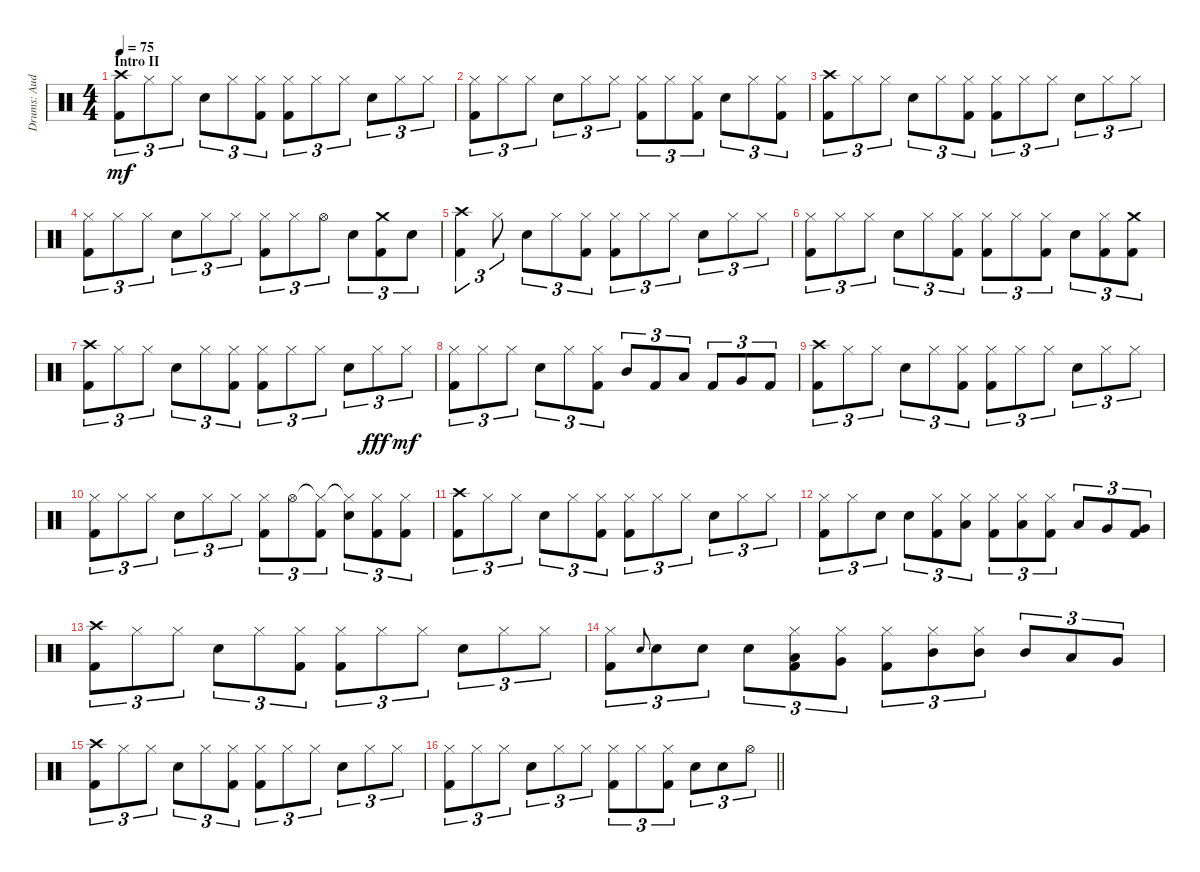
\track ("Drums: Audie" "Drums: Aud") {instrument percussion}
\staff {score}
\articulation defaults
\ts (4 4)
\section ("" "Intro II")
\tempo 75
\clef neutral
\ks c
("Crash high (hit)" "Kick (hit) 2").8{tu (3 2) dy mf} "Hi-Hat (closed)".8{tu (3 2)} "Hi-Hat (closed)".8{tu (3 2)} "Electric Snare (hit)".8{tu (3 2)} "Hi-Hat (closed)".8{tu (3 2)} ("Hi-Hat (closed)" "Kick (hit) 2").8{tu (3 2)} ("Hi-Hat (closed)" "Kick (hit) 2").8{tu (3 2)} "Hi-Hat (closed)".8{tu (3 2)} "Hi-Hat (closed)".8{tu (3 2)} "Electric Snare (hit)".8{tu (3 2)} "Hi-Hat (closed)".8{tu (3 2)} "Hi-Hat (closed)".8{tu (3 2)} |
("Hi-Hat (closed)" "Kick (hit) 2").8{tu (3 2)} "Hi-Hat (closed)".8{tu (3 2)} "Hi-Hat (closed)".8{tu (3 2)} "Electric Snare (hit)".8{tu (3 2)} "Hi-Hat (closed)".8{tu (3 2)} "Hi-Hat (closed)".8{tu (3 2)} ("Hi-Hat (closed)" "Kick (hit) 2").8{tu (3 2)} "Hi-Hat (closed)".8{tu (3 2)} ("Hi-Hat (closed)" "Kick (hit) 2").8{tu (3 2)} "Electric Snare (hit)".8{tu (3 2)} "Hi-Hat (closed)".8{tu (3 2)} ("Hi-Hat (closed)" "Kick (hit) 2").8{tu (3 2)} |
("Crash high (hit)" "Kick (hit) 2").8{tu (3 2)} "Hi-Hat (closed)".8{tu (3 2)} "Hi-Hat (closed)".8{tu (3 2)} "Electric Snare (hit)".8{tu (3 2)} "Hi-Hat (closed)".8{tu (3 2)} ("Hi-Hat (closed)" "Kick (hit) 2").8{tu (3 2)} ("Hi-Hat (closed)" "Kick (hit) 2").8{tu (3 2)} "Hi-Hat (closed)".8{tu (3 2)} "Hi-Hat (closed)".8{tu (3 2)} "Electric Snare (hit)".8{tu (3 2)} "Hi-Hat (closed)".8{tu (3 2)} "Hi-Hat (closed)".8{tu (3 2)} |
("Hi-Hat (closed)" "Kick (hit) 2").8{tu (3 2)} "Hi-Hat (closed)".8{tu (3 2)} "Hi-Hat (closed)".8{tu (3 2)} "Electric Snare (hit)".8{tu (3 2)} "Hi-Hat (closed)".8{tu (3 2)} "Hi-Hat (closed)".8{tu (3 2)} ("Hi-Hat (closed)" "Kick (hit) 2").8{tu (3 2)} "Hi-Hat (closed)".8{tu (3 2)} "Hi-Hat (open)".8{tu (3 2)} "Electric Snare (hit)".8{tu (3 2)} ("Crash medium (hit)" "Kick (hit) 2").8{tu (3 2)} "Electric Snare (hit)".8{tu (3 2)} |
("Crash high (hit)" "Kick (hit) 2").4{tu (3 2)} "Hi-Hat (closed)".8{tu (3 2)} "Electric Snare (hit)".8{tu (3 2)} "Hi-Hat (closed)".8{tu (3 2)} ("Hi-Hat (closed)" "Kick (hit) 2").8{tu (3 2)} ("Hi-Hat (closed)" "Kick (hit) 2").8{tu (3 2)} "Hi-Hat (closed)".8{tu (3 2)} "Hi-Hat (closed)".8{tu (3 2)} "Electric Snare (hit)".8{tu (3 2)} "Hi-Hat (closed)".8{tu (3 2)} "Hi-Hat (closed)".8{tu (3 2)} |
("Hi-Hat (closed)" "Kick (hit) 2").8{tu (3 2)} "Hi-Hat (closed)".8{tu (3 2)} "Hi-Hat (closed)".8{tu (3 2)} "Electric Snare (hit)".8{tu (3 2)} "Hi-Hat (closed)".8{tu (3 2)} ("Hi-Hat (closed)" "Kick (hit) 2").8{tu (3 2)} ("Hi-Hat (closed)" "Kick (hit) 2").8{tu (3 2)} "Hi-Hat (closed)".8{tu (3 2)} ("Hi-Hat (closed)" "Kick (hit) 2").8{tu (3 2)} "Electric Snare (hit)".8{tu (3 2)} ("Hi-Hat (closed)" "Kick (hit) 2").8{tu (3 2)} ("Crash medium (hit)" "Kick (hit) 2").8{tu (3 2)} |
("Crash high (hit)" "Kick (hit) 2").8{tu (3 2)} "Hi-Hat (closed)".8{tu (3 2)} "Hi-Hat (closed)".8{tu (3 2)} "Electric Snare (hit)".8{tu (3 2)} "Hi-Hat (closed)".8{tu (3 2)} ("Hi-Hat (closed)" "Kick (hit) 2").8{tu (3 2)} ("Hi-Hat (closed)" "Kick (hit) 2").8{tu (3 2)} "Hi-Hat (closed)".8{tu (3 2)} "Hi-Hat (closed)".8{tu (3 2)} "Electric Snare (hit)".8{tu (3 2)} "Hi-Hat (closed)".8{tu (3 2) dy fff} "Hi-Hat (closed)".8{tu (3 2) dy mf} |
("Hi-Hat (closed)" "Kick (hit) 2").8{tu (3 2)} "Hi-Hat (closed)".8{tu (3 2)} "Hi-Hat (closed)".8{tu (3 2)} "Electric Snare (hit)".8{tu (3 2)} "Hi-Hat (closed)".8{tu (3 2)} ("Hi-Hat (closed)" "Kick (hit) 2").8{tu (3 2)} "Mid Tom (hit)".8{tu (3 2)} "Kick (hit) 2".8{tu (3 2)} "Low Tom (hit)".8{tu (3 2)} "Kick (hit) 2".8{tu (3 2)} "Very Low Tom (hit)".8{tu (3 2)} "Kick (hit) 2".8{tu (3 2)} |
("Crash high (hit)" "Kick (hit) 2").8{tu (3 2)} "Hi-Hat (closed)".8{tu (3 2)} "Hi-Hat (closed)".8{tu (3 2)} "Electric Snare (hit)".8{tu (3 2)} "Hi-Hat (closed)".8{tu (3 2)} ("Hi-Hat (closed)" "Kick (hit) 2").8{tu (3 2)} ("Hi-Hat (closed)" "Kick (hit) 2").8{tu (3 2)} "Hi-Hat (closed)".8{tu (3 2)} "Hi-Hat (closed)".8{tu (3 2)} "Electric Snare (hit)".8{tu (3 2)} "Hi-Hat (closed)".8{tu (3 2)} "Hi-Hat (closed)".8{tu (3 2)} |
("Hi-Hat (closed)" "Kick (hit) 2").8{tu (3 2)} "Hi-Hat (closed)".8{tu (3 2)} "Hi-Hat (closed)".8{tu (3 2)} "Electric Snare (hit)".8{tu (3 2)} "Hi-Hat (closed)".8{tu (3 2)} "Hi-Hat (closed)".8{tu (3 2)} ("Hi-Hat (closed)" "Kick (hit) 2").8{tu (3 2)} "Hi-Hat (open)".8{tu (3 2)} ("Hi-Hat (closed)"{t} "Kick (hit) 2").8{tu (3 2)} ("Hi-Hat (closed)"{t} "Electric Snare (hit)").8{tu (3 2)} ("Hi-Hat (closed)" "Kick (hit) 2").8{tu (3 2)} ("Hi-Hat (closed)" "Kick (hit) 2").8{tu (3 2)} |
("Crash high (hit)" "Kick (hit) 2").8{tu (3 2)} "Hi-Hat (closed)".8{tu (3 2)} "Hi-Hat (closed)".8{tu (3 2)} "Electric Snare (hit)".8{tu (3 2)} "Hi-Hat (closed)".8{tu (3 2)} ("Hi-Hat (closed)" "Kick (hit) 2").8{tu (3 2)} ("Hi-Hat (closed)" "Kick (hit) 2").8{tu (3 2)} "Hi-Hat (closed)".8{tu (3 2)} "Hi-Hat (closed)".8{tu (3 2)} "Electric Snare (hit)".8{tu (3 2)} "Hi-Hat (closed)".8{tu (3 2)} "Hi-Hat (closed)".8{tu (3 2)} |
("Hi-Hat (closed)" "Kick (hit) 2").8{tu (3 2)} "Hi-Hat (closed)".8{tu (3 2)} "Electric Snare (hit)".8{tu (3 2)} "Electric Snare (hit)".8{tu (3 2)} ("Hi-Hat (closed)" "Kick (hit) 2").8{tu (3 2)} ("Hi-Hat (closed)" "Low Tom (hit)").8{tu (3 2)} ("Hi-Hat (closed)" "Kick (hit) 2").8{tu (3 2)} ("Hi-Hat (closed)" "Low Tom (hit)").8{tu (3 2)} ("Hi-Hat (closed)" "Kick (hit) 2").8{tu (3 2)} "Low Tom (hit)".8{tu (3 2)} "Very Low Tom (hit)".8{tu (3 2)} ("Very Low Tom (hit)" "Kick (hit) 2").8{tu (3 2)} |
("Crash high (hit)" "Kick (hit) 2").8{tu (3 2)} "Hi-Hat (closed)".8{tu (3 2)} "Hi-Hat (closed)".8{tu (3 2)} "Electric Snare (hit)".8{tu (3 2)} "Hi-Hat (closed)".8{tu (3 2)} ("Hi-Hat (closed)" "Kick (hit) 2").8{tu (3 2)} ("Hi-Hat (closed)" "Kick (hit) 2").8{tu (3 2)} "Hi-Hat (closed)".8{tu (3 2)} "Hi-Hat (closed)".8{tu (3 2)} "Electric Snare (hit)".8{tu (3 2)} "Hi-Hat (closed)".8{tu (3 2)} "Hi-Hat (closed)".8{tu (3 2)} |
("Hi-Hat (closed)" "Kick (hit) 2").8{tu (3 2)} "Snare (hit) 2".8{gr onbeat} "Electric Snare (hit)".8{tu (3 2)} "Electric Snare (hit)".8{tu (3 2)} "Electric Snare (hit)".8{tu (3 2)} ("Hi-Hat (closed)" "Low Tom (hit)" "Kick (hit) 2").8{tu (3 2)} ("Hi-Hat (closed)" "Very Low Tom (hit)").8{tu (3 2)} ("Hi-Hat (closed)" "Kick (hit) 2").8{tu (3 2)} ("Hi-Hat (closed)" "Mid Tom (hit)").8{tu (3 2)} ("Hi-Hat (closed)" "Mid Tom (hit)").8{tu (3 2)} "Mid Tom (hit)".8{tu (3 2)} "Low Tom (hit)".8{tu (3 2)} "Very Low Tom (hit)".8{tu (3 2)} |
("Crash high (hit)" "Kick (hit) 2").8{tu (3 2)} "Hi-Hat (closed)".8{tu (3 2)} "Hi-Hat (closed)".8{tu (3 2)} "Electric Snare (hit)".8{tu (3 2)} "Hi-Hat (closed)".8{tu (3 2)} ("Hi-Hat (closed)" "Kick (hit) 2").8{tu (3 2)} ("Hi-Hat (closed)" "Kick (hit) 2").8{tu (3 2)} "Hi-Hat (closed)".8{tu (3 2)} "Hi-Hat (closed)".8{tu (3 2)} "Electric Snare (hit)".8{tu (3 2)} "Hi-Hat (closed)".8{tu (3 2)} "Hi-Hat (closed)".8{tu (3 2)} |
\barLineRight lightlight
("Hi-Hat (closed)" "Kick (hit) 2").8{tu (3 2)} "Hi-Hat (closed)".8{tu (3 2)} "Hi-Hat (closed)".8{tu (3 2)} "Electric Snare (hit)".8{tu (3 2)} "Hi-Hat (closed)".8{tu (3 2)} "Hi-Hat (closed)".8{tu (3 2)} ("Hi-Hat (closed)" "Kick (hit) 2").8{tu (3 2)} "Hi-Hat (closed)".8{tu (3 2)} ("Hi-Hat (closed)" "Kick (hit) 2").8{tu (3 2)} "Electric Snare (hit)".8{tu (3 2)} "Electric Snare (hit)".8{tu (3 2)} "Hi-Hat (open)".8{tu (3 2)}
